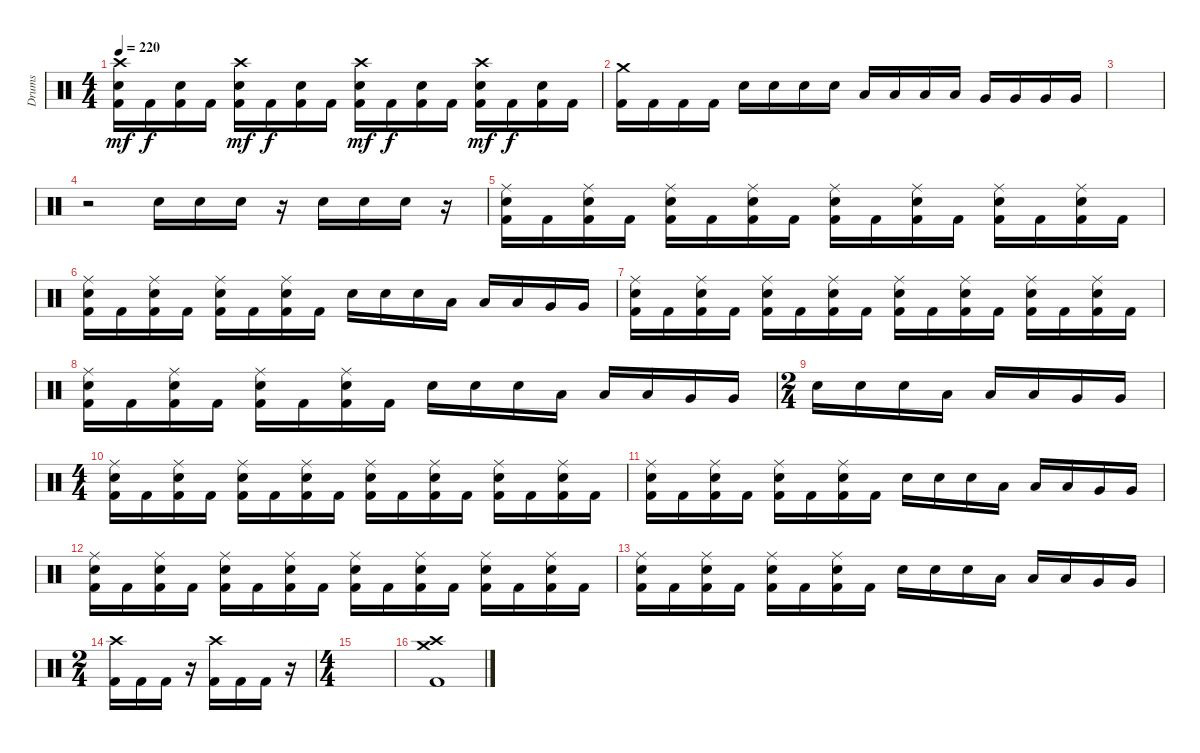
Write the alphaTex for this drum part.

\track ("Drums" "Drums") {instrument percussion}
\staff {score}
\articulation defaults
\ts (4 4)
\tempo 220
\clef neutral
\ks c
("Kick (hit) 2" "Electric Snare (hit)" "Crash high (hit)").16{dy mf} "Kick (hit) 2".16{dy f} ("Kick (hit) 2" "Electric Snare (hit)").16 "Kick (hit) 2".16 ("Kick (hit) 2" "Electric Snare (hit)" "Crash high (hit)").16{dy mf} "Kick (hit) 2".16{dy f} ("Kick (hit) 2" "Electric Snare (hit)").16 "Kick (hit) 2".16 ("Kick (hit) 2" "Electric Snare (hit)" "Crash high (hit)").16{dy mf} "Kick (hit) 2".16{dy f} ("Kick (hit) 2" "Electric Snare (hit)").16 "Kick (hit) 2".16 ("Kick (hit) 2" "Electric Snare (hit)" "Crash high (hit)").16{dy mf} "Kick (hit) 2".16{dy f} ("Kick (hit) 2" "Electric Snare (hit)").16 "Kick (hit) 2".16 |
("Kick (hit) 2" "Crash medium (hit)").16 "Kick (hit) 2".16 "Kick (hit) 2".16 "Kick (hit) 2".16 "Electric Snare (hit)".16 "Electric Snare (hit)".16 "Electric Snare (hit)".16 "Electric Snare (hit)".16 "Low Tom (hit)".16 "Low Tom (hit)".16 "Low Tom (hit)".16 "Low Tom (hit)".16 "Very Low Tom (hit)".16 "Very Low Tom (hit)".16 "Very Low Tom (hit)".16 "Very Low Tom (hit)".16 |
|
r.2 "Electric Snare (hit)".16 "Electric Snare (hit)".16 "Electric Snare (hit)".16 r.16 "Electric Snare (hit)".16 "Electric Snare (hit)".16 "Electric Snare (hit)".16 r.16 |
("Kick (hit) 2" "Electric Snare (hit)" "Ride (middle)").16 "Kick (hit) 2".16 ("Kick (hit) 2" "Electric Snare (hit)" "Ride (middle)").16 "Kick (hit) 2".16 ("Kick (hit) 2" "Electric Snare (hit)" "Ride (middle)").16 "Kick (hit) 2".16 ("Kick (hit) 2" "Electric Snare (hit)" "Ride (middle)").16 "Kick (hit) 2".16 ("Kick (hit) 2" "Electric Snare (hit)" "Ride (middle)").16 "Kick (hit) 2".16 ("Kick (hit) 2" "Electric Snare (hit)" "Ride (middle)").16 "Kick (hit) 2".16 ("Kick (hit) 2" "Electric Snare (hit)" "Ride (middle)").16 "Kick (hit) 2".16 ("Kick (hit) 2" "Electric Snare (hit)" "Ride (middle)").16 "Kick (hit) 2".16 |
("Kick (hit) 2" "Electric Snare (hit)" "Ride (middle)").16 "Kick (hit) 2".16 ("Kick (hit) 2" "Electric Snare (hit)" "Ride (middle)").16 "Kick (hit) 2".16 ("Kick (hit) 2" "Electric Snare (hit)" "Ride (middle)").16 "Kick (hit) 2".16 ("Kick (hit) 2" "Electric Snare (hit)" "Ride (middle)").16 "Kick (hit) 2".16 "Electric Snare (hit)".16 "Electric Snare (hit)".16 "Electric Snare (hit)".16 "Low Tom (hit)".16 "Low Tom (hit)".16 "Low Tom (hit)".16 "Very Low Tom (hit)".16 "Very Low Tom (hit)".16 |
("Kick (hit) 2" "Electric Snare (hit)" "Ride (middle)").16 "Kick (hit) 2".16 ("Kick (hit) 2" "Electric Snare (hit)" "Ride (middle)").16 "Kick (hit) 2".16 ("Kick (hit) 2" "Electric Snare (hit)" "Ride (middle)").16 "Kick (hit) 2".16 ("Kick (hit) 2" "Electric Snare (hit)" "Ride (middle)").16 "Kick (hit) 2".16 ("Kick (hit) 2" "Electric Snare (hit)" "Ride (middle)").16 "Kick (hit) 2".16 ("Kick (hit) 2" "Electric Snare (hit)" "Ride (middle)").16 "Kick (hit) 2".16 ("Kick (hit) 2" "Electric Snare (hit)" "Ride (middle)").16 "Kick (hit) 2".16 ("Kick (hit) 2" "Electric Snare (hit)" "Ride (middle)").16 "Kick (hit) 2".16 |
("Kick (hit) 2" "Electric Snare (hit)" "Ride (middle)").16 "Kick (hit) 2".16 ("Kick (hit) 2" "Electric Snare (hit)" "Ride (middle)").16 "Kick (hit) 2".16 ("Kick (hit) 2" "Electric Snare (hit)" "Ride (middle)").16 "Kick (hit) 2".16 ("Kick (hit) 2" "Electric Snare (hit)" "Ride (middle)").16 "Kick (hit) 2".16 "Electric Snare (hit)".16 "Electric Snare (hit)".16 "Electric Snare (hit)".16 "Low Tom (hit)".16 "Low Tom (hit)".16 "Low Tom (hit)".16 "Very Low Tom (hit)".16 "Very Low Tom (hit)".16 |
\ts (2 4)
"Electric Snare (hit)".16 "Electric Snare (hit)".16 "Electric Snare (hit)".16 "Low Tom (hit)".16 "Low Tom (hit)".16 "Low Tom (hit)".16 "Very Low Tom (hit)".16 "Very Low Tom (hit)".16 |
\ts (4 4)
("Kick (hit) 2" "Electric Snare (hit)" "Ride (middle)").16 "Kick (hit) 2".16 ("Kick (hit) 2" "Electric Snare (hit)" "Ride (middle)").16 "Kick (hit) 2".16 ("Kick (hit) 2" "Electric Snare (hit)" "Ride (middle)").16 "Kick (hit) 2".16 ("Kick (hit) 2" "Electric Snare (hit)" "Ride (middle)").16 "Kick (hit) 2".16 ("Kick (hit) 2" "Electric Snare (hit)" "Ride (middle)").16 "Kick (hit) 2".16 ("Kick (hit) 2" "Electric Snare (hit)" "Ride (middle)").16 "Kick (hit) 2".16 ("Kick (hit) 2" "Electric Snare (hit)" "Ride (middle)").16 "Kick (hit) 2".16 ("Kick (hit) 2" "Electric Snare (hit)" "Ride (middle)").16 "Kick (hit) 2".16 |
("Kick (hit) 2" "Electric Snare (hit)" "Ride (middle)").16 "Kick (hit) 2".16 ("Kick (hit) 2" "Electric Snare (hit)" "Ride (middle)").16 "Kick (hit) 2".16 ("Kick (hit) 2" "Electric Snare (hit)" "Ride (middle)").16 "Kick (hit) 2".16 ("Kick (hit) 2" "Electric Snare (hit)" "Ride (middle)").16 "Kick (hit) 2".16 "Electric Snare (hit)".16 "Electric Snare (hit)".16 "Electric Snare (hit)".16 "Low Tom (hit)".16 "Low Tom (hit)".16 "Low Tom (hit)".16 "Very Low Tom (hit)".16 "Very Low Tom (hit)".16 |
("Kick (hit) 2" "Electric Snare (hit)" "Ride (middle)").16 "Kick (hit) 2".16 ("Kick (hit) 2" "Electric Snare (hit)" "Ride (middle)").16 "Kick (hit) 2".16 ("Kick (hit) 2" "Electric Snare (hit)" "Ride (middle)").16 "Kick (hit) 2".16 ("Kick (hit) 2" "Electric Snare (hit)" "Ride (middle)").16 "Kick (hit) 2".16 ("Kick (hit) 2" "Electric Snare (hit)" "Ride (middle)").16 "Kick (hit) 2".16 ("Kick (hit) 2" "Electric Snare (hit)" "Ride (middle)").16 "Kick (hit) 2".16 ("Kick (hit) 2" "Electric Snare (hit)" "Ride (middle)").16 "Kick (hit) 2".16 ("Kick (hit) 2" "Electric Snare (hit)" "Ride (middle)").16 "Kick (hit) 2".16 |
("Kick (hit) 2" "Electric Snare (hit)" "Ride (middle)").16 "Kick (hit) 2".16 ("Kick (hit) 2" "Electric Snare (hit)" "Ride (middle)").16 "Kick (hit) 2".16 ("Kick (hit) 2" "Electric Snare (hit)" "Ride (middle)").16 "Kick (hit) 2".16 ("Kick (hit) 2" "Electric Snare (hit)" "Ride (middle)").16 "Kick (hit) 2".16 "Electric Snare (hit)".16 "Electric Snare (hit)".16 "Electric Snare (hit)".16 "Low Tom (hit)".16 "Low Tom (hit)".16 "Low Tom (hit)".16 "Very Low Tom (hit)".16 "Very Low Tom (hit)".16 |
\ts (2 4)
("Kick (hit) 2" "Crash high (hit)").16 "Kick (hit) 2".16 "Kick (hit) 2".16 r.16 ("Kick (hit) 2" "Crash high (hit)").16 "Kick (hit) 2".16 "Kick (hit) 2".16 r.16 |
\ts (4 4)
|
("Kick (hit) 2" "Crash high (hit)" "Crash medium (hit)").1
